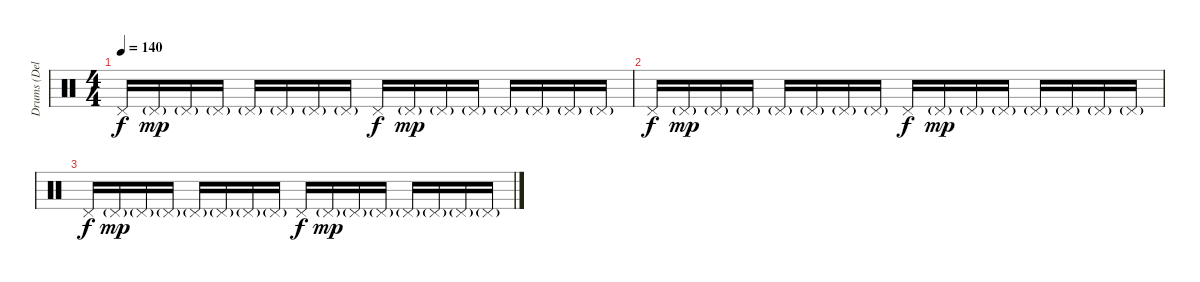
\track ("Drums (Delay Effect)" "Drums (Del") {instrument percussion}
\staff {score}
\articulation defaults
\ts (4 4)
\tempo 140
\clef neutral
\ks c "Pedal Hi-Hat (hit)".16{dy f} "Pedal Hi-Hat (hit)"{g}.16{dy mp} "Pedal Hi-Hat (hit)"{g}.16 "Pedal Hi-Hat (hit)"{g}.16 "Pedal Hi-Hat (hit)"{g}.16 "Pedal Hi-Hat (hit)"{g}.16 "Pedal Hi-Hat (hit)"{g}.16 "Pedal Hi-Hat (hit)"{g}.16 "Pedal Hi-Hat (hit)".16{dy f} "Pedal Hi-Hat (hit)"{g}.16{dy mp} "Pedal Hi-Hat (hit)"{g}.16 "Pedal Hi-Hat (hit)"{g}.16 "Pedal Hi-Hat (hit)"{g}.16 "Pedal Hi-Hat (hit)"{g}.16 "Pedal Hi-Hat (hit)"{g}.16 "Pedal Hi-Hat (hit)"{g}.16
|
"Pedal Hi-Hat (hit)".16{dy f} "Pedal Hi-Hat (hit)"{g}.16{dy mp} "Pedal Hi-Hat (hit)"{g}.16 "Pedal Hi-Hat (hit)"{g}.16 "Pedal Hi-Hat (hit)"{g}.16 "Pedal Hi-Hat (hit)"{g}.16 "Pedal Hi-Hat (hit)"{g}.16 "Pedal Hi-Hat (hit)"{g}.16 "Pedal Hi-Hat (hit)".16{dy f} "Pedal Hi-Hat (hit)"{g}.16{dy mp} "Pedal Hi-Hat (hit)"{g}.16 "Pedal Hi-Hat (hit)"{g}.16 "Pedal Hi-Hat (hit)"{g}.16 "Pedal Hi-Hat (hit)"{g}.16 "Pedal Hi-Hat (hit)"{g}.16 "Pedal Hi-Hat (hit)"{g}.16 |
"Pedal Hi-Hat (hit)".16{dy f} "Pedal Hi-Hat (hit)"{g}.16{dy mp} "Pedal Hi-Hat (hit)"{g}.16 "Pedal Hi-Hat (hit)"{g}.16 "Pedal Hi-Hat (hit)"{g}.16 "Pedal Hi-Hat (hit)"{g}.16 "Pedal Hi-Hat (hit)"{g}.16 "Pedal Hi-Hat (hit)"{g}.16 "Pedal Hi-Hat (hit)".16{dy f} "Pedal Hi-Hat (hit)"{g}.16{dy mp} "Pedal Hi-Hat (hit)"{g}.16 "Pedal Hi-Hat (hit)"{g}.16 "Pedal Hi-Hat (hit)"{g}.16 "Pedal Hi-Hat (hit)"{g}.16 "Pedal Hi-Hat (hit)"{g}.16 "Pedal Hi-Hat (hit)"{g}.16
